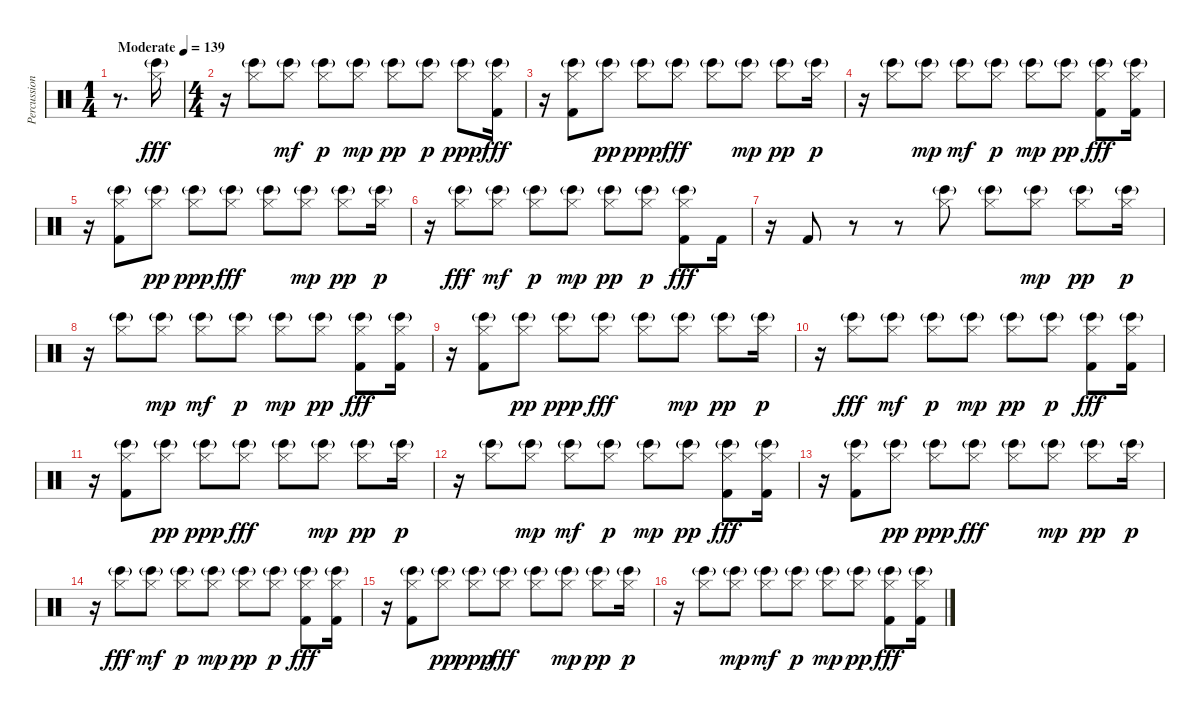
\track ("Percussion" "Percussion") {instrument percussion}
\staff {score}
\articulation defaults
\ts (1 4)
\tempo (139 "Moderate")
\clef neutral
\ks c
r.8{d dy fff} ("Hi-Hat (closed)" "Bongo High (hit)"{g}).16{balance 0} |
\ts (4 4)
r.16 ("Hi-Hat (closed)" "Bongo High (hit)"{g}).8{balance 16} ("Hi-Hat (closed)" "Bongo High (hit)"{g}).8{dy mf balance 0} ("Hi-Hat (closed)" "Bongo High (hit)"{g}).8{dy p balance 16} ("Hi-Hat (closed)" "Bongo High (hit)"{g}).8{dy mp balance 0} ("Hi-Hat (closed)" "Bongo High (hit)"{g}).8{dy pp balance 16} ("Hi-Hat (closed)" "Bongo High (hit)"{g}).8{dy p balance 0} ("Hi-Hat (closed)" "Bongo High (hit)"{g}).8{dy ppp balance 16} ("Hi-Hat (closed)" "Bongo High (hit)"{g} "Kick (hit) 2").16{dy fff balance 0} |
r.16 ("Hi-Hat (closed)" "Bongo High (hit)"{g} "Kick (hit) 2").8{balance 16} ("Hi-Hat (closed)" "Bongo High (hit)"{g}).8{dy pp balance 0} ("Hi-Hat (closed)" "Bongo High (hit)"{g}).8{dy ppp balance 16} ("Hi-Hat (closed)" "Bongo High (hit)"{g}).8{dy fff balance 0} ("Hi-Hat (closed)" "Bongo High (hit)"{g}).8{balance 16} ("Hi-Hat (closed)" "Bongo High (hit)"{g}).8{dy mp balance 0} ("Hi-Hat (closed)" "Bongo High (hit)"{g}).8{dy pp balance 16} ("Hi-Hat (closed)" "Bongo High (hit)"{g}).16{dy p balance 0} |
r.16 ("Hi-Hat (closed)" "Bongo High (hit)"{g}).8{balance 16} ("Hi-Hat (closed)" "Bongo High (hit)"{g}).8{dy mp balance 0} ("Hi-Hat (closed)" "Bongo High (hit)"{g}).8{dy mf balance 16} ("Hi-Hat (closed)" "Bongo High (hit)"{g}).8{dy p balance 0} ("Hi-Hat (closed)" "Bongo High (hit)"{g}).8{dy mp balance 16} ("Hi-Hat (closed)" "Bongo High (hit)"{g}).8{dy pp balance 0} ("Hi-Hat (closed)" "Bongo High (hit)"{g} "Kick (hit) 2").8{dy fff balance 16} ("Hi-Hat (closed)" "Bongo High (hit)"{g} "Kick (hit) 2").16{balance 0} |
r.16 ("Hi-Hat (closed)" "Bongo High (hit)"{g} "Kick (hit) 2").8{balance 16} ("Hi-Hat (closed)" "Bongo High (hit)"{g}).8{dy pp balance 0} ("Hi-Hat (closed)" "Bongo High (hit)"{g}).8{dy ppp balance 16} ("Hi-Hat (closed)" "Bongo High (hit)"{g}).8{dy fff balance 0} ("Hi-Hat (closed)" "Bongo High (hit)"{g}).8{balance 16} ("Hi-Hat (closed)" "Bongo High (hit)"{g}).8{dy mp balance 0} ("Hi-Hat (closed)" "Bongo High (hit)"{g}).8{dy pp balance 16} ("Hi-Hat (closed)" "Bongo High (hit)"{g}).16{dy p balance 0} |
r.16 ("Hi-Hat (closed)" "Bongo High (hit)"{g}).8{dy fff balance 16} ("Hi-Hat (closed)" "Bongo High (hit)"{g}).8{dy mf balance 0} ("Hi-Hat (closed)" "Bongo High (hit)"{g}).8{dy p balance 16} ("Hi-Hat (closed)" "Bongo High (hit)"{g}).8{dy mp balance 0} ("Hi-Hat (closed)" "Bongo High (hit)"{g}).8{dy pp balance 16} ("Hi-Hat (closed)" "Bongo High (hit)"{g}).8{dy p balance 0} ("Hi-Hat (closed)" "Bongo High (hit)"{g} "Kick (hit) 2").8{dy fff balance 16} "Kick (hit) 2".16{balance 0} |
r.16 "Kick (hit) 2".8{balance 16} r.8{balance 0} r.8{balance 16} ("Hi-Hat (closed)" "Bongo High (hit)"{g}).8{balance 0} ("Hi-Hat (closed)" "Bongo High (hit)"{g}).8{balance 16} ("Hi-Hat (closed)" "Bongo High (hit)"{g}).8{dy mp balance 0} ("Hi-Hat (closed)" "Bongo High (hit)"{g}).8{dy pp balance 16} ("Hi-Hat (closed)" "Bongo High (hit)"{g}).16{dy p balance 0} |
r.16 ("Hi-Hat (closed)" "Bongo High (hit)"{g}).8{balance 16} ("Hi-Hat (closed)" "Bongo High (hit)"{g}).8{dy mp balance 0} ("Hi-Hat (closed)" "Bongo High (hit)"{g}).8{dy mf balance 16} ("Hi-Hat (closed)" "Bongo High (hit)"{g}).8{dy p balance 0} ("Hi-Hat (closed)" "Bongo High (hit)"{g}).8{dy mp balance 16} ("Hi-Hat (closed)" "Bongo High (hit)"{g}).8{dy pp balance 0} ("Hi-Hat (closed)" "Bongo High (hit)"{g} "Kick (hit) 2").8{dy fff balance 16} ("Hi-Hat (closed)" "Bongo High (hit)"{g} "Kick (hit) 2").16{balance 0} |
r.16 ("Hi-Hat (closed)" "Bongo High (hit)"{g} "Kick (hit) 2").8{balance 16} ("Hi-Hat (closed)" "Bongo High (hit)"{g}).8{dy pp balance 0} ("Hi-Hat (closed)" "Bongo High (hit)"{g}).8{dy ppp balance 16} ("Hi-Hat (closed)" "Bongo High (hit)"{g}).8{dy fff balance 0} ("Hi-Hat (closed)" "Bongo High (hit)"{g}).8{balance 16} ("Hi-Hat (closed)" "Bongo High (hit)"{g}).8{dy mp balance 0} ("Hi-Hat (closed)" "Bongo High (hit)"{g}).8{dy pp balance 16} ("Hi-Hat (closed)" "Bongo High (hit)"{g}).16{dy p balance 0} |
r.16 ("Hi-Hat (closed)" "Bongo High (hit)"{g}).8{dy fff balance 16} ("Hi-Hat (closed)" "Bongo High (hit)"{g}).8{dy mf balance 0} ("Hi-Hat (closed)" "Bongo High (hit)"{g}).8{dy p balance 16} ("Hi-Hat (closed)" "Bongo High (hit)"{g}).8{dy mp balance 0} ("Hi-Hat (closed)" "Bongo High (hit)"{g}).8{dy pp balance 16} ("Hi-Hat (closed)" "Bongo High (hit)"{g}).8{dy p balance 0} ("Hi-Hat (closed)" "Bongo High (hit)"{g} "Kick (hit) 2").8{dy fff balance 16} ("Hi-Hat (closed)" "Bongo High (hit)"{g} "Kick (hit) 2").16{balance 0} |
r.16 ("Hi-Hat (closed)" "Bongo High (hit)"{g} "Kick (hit) 2").8{balance 16} ("Hi-Hat (closed)" "Bongo High (hit)"{g}).8{dy pp balance 0} ("Hi-Hat (closed)" "Bongo High (hit)"{g}).8{dy ppp balance 16} ("Hi-Hat (closed)" "Bongo High (hit)"{g}).8{dy fff balance 0} ("Hi-Hat (closed)" "Bongo High (hit)"{g}).8{balance 16} ("Hi-Hat (closed)" "Bongo High (hit)"{g}).8{dy mp balance 0} ("Hi-Hat (closed)" "Bongo High (hit)"{g}).8{dy pp balance 16} ("Hi-Hat (closed)" "Bongo High (hit)"{g}).16{dy p balance 0} |
r.16 ("Hi-Hat (closed)" "Bongo High (hit)"{g}).8{balance 16} ("Hi-Hat (closed)" "Bongo High (hit)"{g}).8{dy mp balance 0} ("Hi-Hat (closed)" "Bongo High (hit)"{g}).8{dy mf balance 16} ("Hi-Hat (closed)" "Bongo High (hit)"{g}).8{dy p balance 0} ("Hi-Hat (closed)" "Bongo High (hit)"{g}).8{dy mp balance 16} ("Hi-Hat (closed)" "Bongo High (hit)"{g}).8{dy pp balance 0} ("Hi-Hat (closed)" "Bongo High (hit)"{g} "Kick (hit) 2").8{dy fff balance 16} ("Hi-Hat (closed)" "Bongo High (hit)"{g} "Kick (hit) 2").16{balance 0} |
r.16 ("Hi-Hat (closed)" "Bongo High (hit)"{g} "Kick (hit) 2").8{balance 16} ("Hi-Hat (closed)" "Bongo High (hit)"{g}).8{dy pp balance 0} ("Hi-Hat (closed)" "Bongo High (hit)"{g}).8{dy ppp balance 16} ("Hi-Hat (closed)" "Bongo High (hit)"{g}).8{dy fff balance 0} ("Hi-Hat (closed)" "Bongo High (hit)"{g}).8{balance 16} ("Hi-Hat (closed)" "Bongo High (hit)"{g}).8{dy mp balance 0} ("Hi-Hat (closed)" "Bongo High (hit)"{g}).8{dy pp balance 16} ("Hi-Hat (closed)" "Bongo High (hit)"{g}).16{dy p balance 0} |
r.16 ("Hi-Hat (closed)" "Bongo High (hit)"{g}).8{dy fff balance 16} ("Hi-Hat (closed)" "Bongo High (hit)"{g}).8{dy mf balance 0} ("Hi-Hat (closed)" "Bongo High (hit)"{g}).8{dy p balance 16} ("Hi-Hat (closed)" "Bongo High (hit)"{g}).8{dy mp balance 0} ("Hi-Hat (closed)" "Bongo High (hit)"{g}).8{dy pp balance 16} ("Hi-Hat (closed)" "Bongo High (hit)"{g}).8{dy p balance 0} ("Hi-Hat (closed)" "Bongo High (hit)"{g} "Kick (hit) 2").8{dy fff balance 16} ("Hi-Hat (closed)" "Bongo High (hit)"{g} "Kick (hit) 2").16{balance 0} |
r.16 ("Hi-Hat (closed)" "Bongo High (hit)"{g} "Kick (hit) 2").8{balance 16} ("Hi-Hat (closed)" "Bongo High (hit)"{g}).8{dy pp balance 0} ("Hi-Hat (closed)" "Bongo High (hit)"{g}).8{dy ppp balance 16} ("Hi-Hat (closed)" "Bongo High (hit)"{g}).8{dy fff balance 0} ("Hi-Hat (closed)" "Bongo High (hit)"{g}).8{balance 16} ("Hi-Hat (closed)" "Bongo High (hit)"{g}).8{dy mp balance 0} ("Hi-Hat (closed)" "Bongo High (hit)"{g}).8{dy pp balance 16} ("Hi-Hat (closed)" "Bongo High (hit)"{g}).16{dy p balance 0} |
r.16 ("Hi-Hat (closed)" "Bongo High (hit)"{g}).8{balance 16} ("Hi-Hat (closed)" "Bongo High (hit)"{g}).8{dy mp balance 0} ("Hi-Hat (closed)" "Bongo High (hit)"{g}).8{dy mf balance 16} ("Hi-Hat (closed)" "Bongo High (hit)"{g}).8{dy p balance 0} ("Hi-Hat (closed)" "Bongo High (hit)"{g}).8{dy mp balance 16} ("Hi-Hat (closed)" "Bongo High (hit)"{g}).8{dy pp balance 0} ("Hi-Hat (closed)" "Bongo High (hit)"{g} "Kick (hit) 2").8{dy fff balance 16} ("Hi-Hat (closed)" "Bongo High (hit)"{g} "Kick (hit) 2").16{balance 0}
